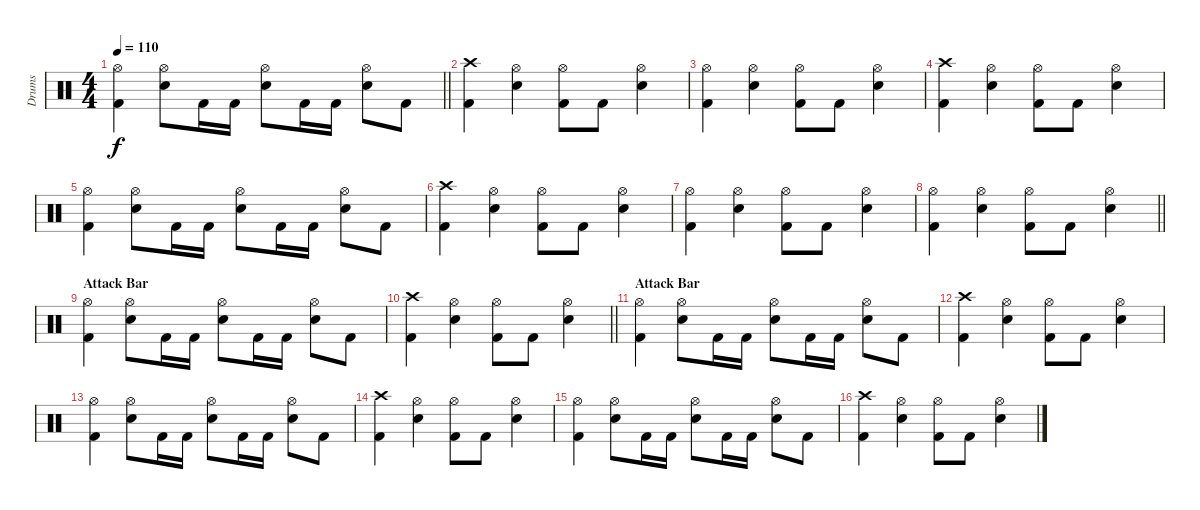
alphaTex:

\track ("Drums" "Drums") {instrument percussion bank 10}
\staff {score}
\articulation defaults
\ts (4 4)
\tempo 110
\clef neutral
\barLineRight lightlight
\ks c
("Kick (hit) 2" "Hi-Hat (open)").4{dy f} ("Hi-Hat (open)" "Snare (hit) 2").8 "Kick (hit) 2".16 "Kick (hit) 2".16 ("Snare (hit) 2" "Hi-Hat (open)").8 "Kick (hit) 2".16 "Kick (hit) 2".16 ("Snare (hit) 2" "Hi-Hat (open)").8 "Kick (hit) 2".8 |
("Kick (hit) 2" "Crash high (hit)").4 ("Hi-Hat (open)" "Snare (hit) 2").4 ("Hi-Hat (open)" "Kick (hit) 2").8 "Kick (hit) 2".8 ("Hi-Hat (open)" "Snare (hit) 2").4 |
("Kick (hit) 2" "Hi-Hat (open)").4 ("Hi-Hat (open)" "Snare (hit) 2").4 ("Hi-Hat (open)" "Kick (hit) 2").8 "Kick (hit) 2".8 ("Hi-Hat (open)" "Snare (hit) 2").4 |
("Kick (hit) 2" "Crash high (hit)").4 ("Hi-Hat (open)" "Snare (hit) 2").4 ("Hi-Hat (open)" "Kick (hit) 2").8 "Kick (hit) 2".8 ("Hi-Hat (open)" "Snare (hit) 2").4 |
("Kick (hit) 2" "Hi-Hat (open)").4 ("Hi-Hat (open)" "Snare (hit) 2").8 "Kick (hit) 2".16 "Kick (hit) 2".16 ("Snare (hit) 2" "Hi-Hat (open)").8 "Kick (hit) 2".16 "Kick (hit) 2".16 ("Snare (hit) 2" "Hi-Hat (open)").8 "Kick (hit) 2".8 |
("Kick (hit) 2" "Crash high (hit)").4 ("Hi-Hat (open)" "Snare (hit) 2").4 ("Hi-Hat (open)" "Kick (hit) 2").8 "Kick (hit) 2".8 ("Hi-Hat (open)" "Snare (hit) 2").4 |
("Kick (hit) 2" "Hi-Hat (open)").4 ("Hi-Hat (open)" "Snare (hit) 2").4 ("Hi-Hat (open)" "Kick (hit) 2").8 "Kick (hit) 2".8 ("Hi-Hat (open)" "Snare (hit) 2").4 |
\barLineRight lightlight
("Kick (hit) 2" "Hi-Hat (open)").4 ("Hi-Hat (open)" "Snare (hit) 2").4 ("Hi-Hat (open)" "Kick (hit) 2").8 "Kick (hit) 2".8 ("Hi-Hat (open)" "Snare (hit) 2").4 |
\section ("" "Attack Bar")
("Kick (hit) 2" "Hi-Hat (open)").4 ("Hi-Hat (open)" "Snare (hit) 2").8 "Kick (hit) 2".16 "Kick (hit) 2".16 ("Snare (hit) 2" "Hi-Hat (open)").8 "Kick (hit) 2".16 "Kick (hit) 2".16 ("Snare (hit) 2" "Hi-Hat (open)").8 "Kick (hit) 2".8 |
\barLineRight lightlight
("Kick (hit) 2" "Crash high (hit)").4 ("Hi-Hat (open)" "Snare (hit) 2").4 ("Hi-Hat (open)" "Kick (hit) 2").8 "Kick (hit) 2".8 ("Hi-Hat (open)" "Snare (hit) 2").4 |
\section ("" "Attack Bar")
("Kick (hit) 2" "Hi-Hat (open)").4 ("Hi-Hat (open)" "Snare (hit) 2").8 "Kick (hit) 2".16 "Kick (hit) 2".16 ("Snare (hit) 2" "Hi-Hat (open)").8 "Kick (hit) 2".16 "Kick (hit) 2".16 ("Snare (hit) 2" "Hi-Hat (open)").8 "Kick (hit) 2".8 |
("Kick (hit) 2" "Crash high (hit)").4 ("Hi-Hat (open)" "Snare (hit) 2").4 ("Hi-Hat (open)" "Kick (hit) 2").8 "Kick (hit) 2".8 ("Hi-Hat (open)" "Snare (hit) 2").4 |
("Kick (hit) 2" "Hi-Hat (open)").4 ("Hi-Hat (open)" "Snare (hit) 2").8 "Kick (hit) 2".16 "Kick (hit) 2".16 ("Snare (hit) 2" "Hi-Hat (open)").8 "Kick (hit) 2".16 "Kick (hit) 2".16 ("Snare (hit) 2" "Hi-Hat (open)").8 "Kick (hit) 2".8 |
("Kick (hit) 2" "Crash high (hit)").4 ("Hi-Hat (open)" "Snare (hit) 2").4 ("Hi-Hat (open)" "Kick (hit) 2").8 "Kick (hit) 2".8 ("Hi-Hat (open)" "Snare (hit) 2").4 |
("Kick (hit) 2" "Hi-Hat (open)").4 ("Hi-Hat (open)" "Snare (hit) 2").8 "Kick (hit) 2".16 "Kick (hit) 2".16 ("Snare (hit) 2" "Hi-Hat (open)").8 "Kick (hit) 2".16 "Kick (hit) 2".16 ("Snare (hit) 2" "Hi-Hat (open)").8 "Kick (hit) 2".8 |
("Kick (hit) 2" "Crash high (hit)").4 ("Hi-Hat (open)" "Snare (hit) 2").4 ("Hi-Hat (open)" "Kick (hit) 2").8 "Kick (hit) 2".8 ("Hi-Hat (open)" "Snare (hit) 2").4
